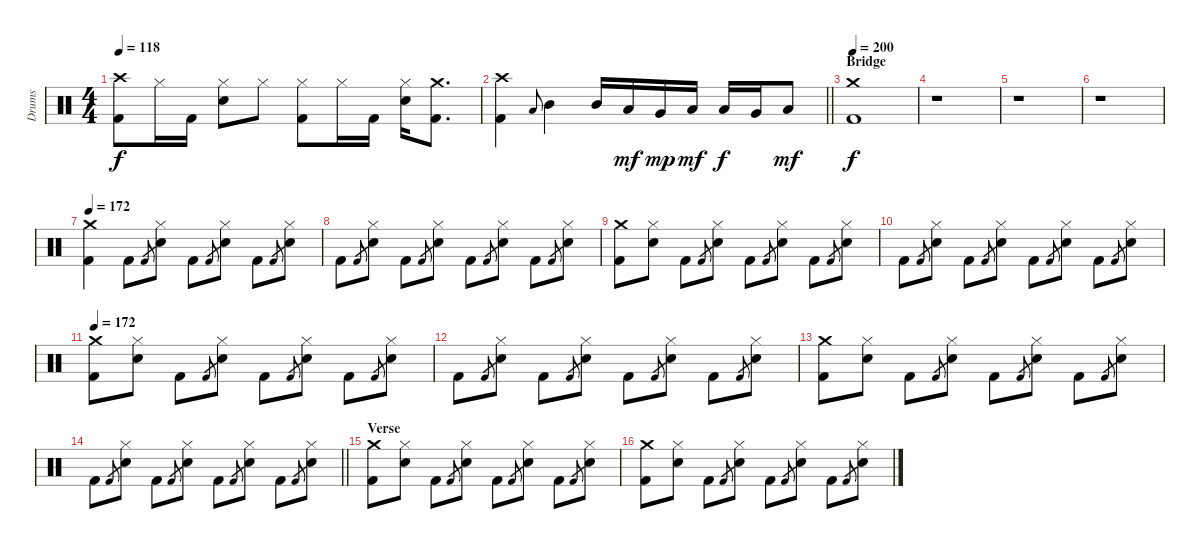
\track ("Drums" "Drums") {instrument percussion}
\staff {score}
\articulation defaults
\ts (4 4)
\tempo 118
\clef neutral
\ks c
("Crash high (hit)" "Kick (hit) 2").8{dy f} "Hi-Hat (closed)".16 "Kick (hit) 2".16 ("Hi-Hat (closed)" "Snare (hit) 2").8 "Hi-Hat (closed)".8 ("Hi-Hat (closed)" "Kick (hit) 2").8 "Hi-Hat (closed)".16 "Kick (hit) 2".16 ("Hi-Hat (closed)" "Snare (hit) 2").16 ("Crash medium (hit)" "Kick (hit) 2").8{d} |
\barLineRight lightlight
("Crash high (hit)" "Kick (hit) 2").4 "Low Tom (hit)".8{gr onbeat} "Mid Tom (hit)".4 "Mid Tom (hit)".16 "Low Tom (hit)".16{dy mf} "Very Low Tom (hit)".16{dy mp} "Low Floor Tom (hit)".16{dy mf} "Low Tom (hit)".16{dy f} "Very Low Tom (hit)".16 "Low Floor Tom (hit)".8{dy mf} |
\section ("" "Bridge")
\tempo 200
("Crash medium (hit)" "Kick (hit) 2").1{dy f} |
r.1 |
r.1 |
r.1 |
\tempo 172
("Crash medium (hit)" "Kick (hit) 2").4 "Kick (hit) 2".8 "Kick (hit) 2".8{gr} ("Hi-Hat (closed)" "Snare (hit) 2").8 "Kick (hit) 2".8 "Kick (hit) 2".8{gr} ("Hi-Hat (closed)" "Snare (hit) 2").8 "Kick (hit) 2".8 "Kick (hit) 2".8{gr} ("Hi-Hat (closed)" "Snare (hit) 2").8 |
"Kick (hit) 2".8 "Kick (hit) 2".8{gr} ("Hi-Hat (closed)" "Snare (hit) 2").8 "Kick (hit) 2".8 "Kick (hit) 2".8{gr} ("Hi-Hat (closed)" "Snare (hit) 2").8 "Kick (hit) 2".8 "Kick (hit) 2".8{gr} ("Hi-Hat (closed)" "Snare (hit) 2").8 "Kick (hit) 2".8 "Kick (hit) 2".8{gr} ("Hi-Hat (closed)" "Snare (hit) 2").8 |
("Crash medium (hit)" "Kick (hit) 2").8 ("Hi-Hat (closed)" "Snare (hit) 2").8 "Kick (hit) 2".8 "Kick (hit) 2".8{gr} ("Hi-Hat (closed)" "Snare (hit) 2").8 "Kick (hit) 2".8 "Kick (hit) 2".8{gr} ("Hi-Hat (closed)" "Snare (hit) 2").8 "Kick (hit) 2".8 "Kick (hit) 2".8{gr} ("Hi-Hat (closed)" "Snare (hit) 2").8 |
"Kick (hit) 2".8 "Kick (hit) 2".8{gr} ("Hi-Hat (closed)" "Snare (hit) 2").8 "Kick (hit) 2".8 "Kick (hit) 2".8{gr} ("Hi-Hat (closed)" "Snare (hit) 2").8 "Kick (hit) 2".8 "Kick (hit) 2".8{gr} ("Hi-Hat (closed)" "Snare (hit) 2").8 "Kick (hit) 2".8 "Kick (hit) 2".8{gr} ("Hi-Hat (closed)" "Snare (hit) 2").8 |
\tempo 172
("Crash medium (hit)" "Kick (hit) 2").8 ("Hi-Hat (closed)" "Snare (hit) 2").8 "Kick (hit) 2".8 "Kick (hit) 2".8{gr} ("Hi-Hat (closed)" "Snare (hit) 2").8 "Kick (hit) 2".8 "Kick (hit) 2".8{gr} ("Hi-Hat (closed)" "Snare (hit) 2").8 "Kick (hit) 2".8 "Kick (hit) 2".8{gr} ("Hi-Hat (closed)" "Snare (hit) 2").8 |
"Kick (hit) 2".8 "Kick (hit) 2".8{gr} ("Hi-Hat (closed)" "Snare (hit) 2").8 "Kick (hit) 2".8 "Kick (hit) 2".8{gr} ("Hi-Hat (closed)" "Snare (hit) 2").8 "Kick (hit) 2".8 "Kick (hit) 2".8{gr} ("Hi-Hat (closed)" "Snare (hit) 2").8 "Kick (hit) 2".8 "Kick (hit) 2".8{gr} ("Hi-Hat (closed)" "Snare (hit) 2").8 |
("Crash medium (hit)" "Kick (hit) 2").8 ("Hi-Hat (closed)" "Snare (hit) 2").8 "Kick (hit) 2".8 "Kick (hit) 2".8{gr} ("Hi-Hat (closed)" "Snare (hit) 2").8 "Kick (hit) 2".8 "Kick (hit) 2".8{gr} ("Hi-Hat (closed)" "Snare (hit) 2").8 "Kick (hit) 2".8 "Kick (hit) 2".8{gr} ("Hi-Hat (closed)" "Snare (hit) 2").8 |
\barLineRight lightlight "Kick (hit) 2".8 "Kick (hit) 2".8{gr}
("Hi-Hat (closed)" "Snare (hit) 2").8 "Kick (hit) 2".8 "Kick (hit) 2".8{gr} ("Hi-Hat (closed)" "Snare (hit) 2").8 "Kick (hit) 2".8 "Kick (hit) 2".8{gr} ("Hi-Hat (closed)" "Snare (hit) 2").8 "Kick (hit) 2".8 "Kick (hit) 2".8{gr} ("Hi-Hat (closed)" "Snare (hit) 2").8 |
\section ("" "Verse")
("Crash medium (hit)" "Kick (hit) 2").8 ("Hi-Hat (closed)" "Snare (hit) 2").8 "Kick (hit) 2".8 "Kick (hit) 2".8{gr} ("Hi-Hat (closed)" "Snare (hit) 2").8 "Kick (hit) 2".8 "Kick (hit) 2".8{gr} ("Hi-Hat (closed)" "Snare (hit) 2").8 "Kick (hit) 2".8 "Kick (hit) 2".8{gr} ("Hi-Hat (closed)" "Snare (hit) 2").8 |
("Crash medium (hit)" "Kick (hit) 2").8 ("Hi-Hat (closed)" "Snare (hit) 2").8 "Kick (hit) 2".8 "Kick (hit) 2".8{gr} ("Hi-Hat (closed)" "Snare (hit) 2").8 "Kick (hit) 2".8 "Kick (hit) 2".8{gr} ("Hi-Hat (closed)" "Snare (hit) 2").8 "Kick (hit) 2".8 "Kick (hit) 2".8{gr} ("Hi-Hat (closed)" "Snare (hit) 2").8
